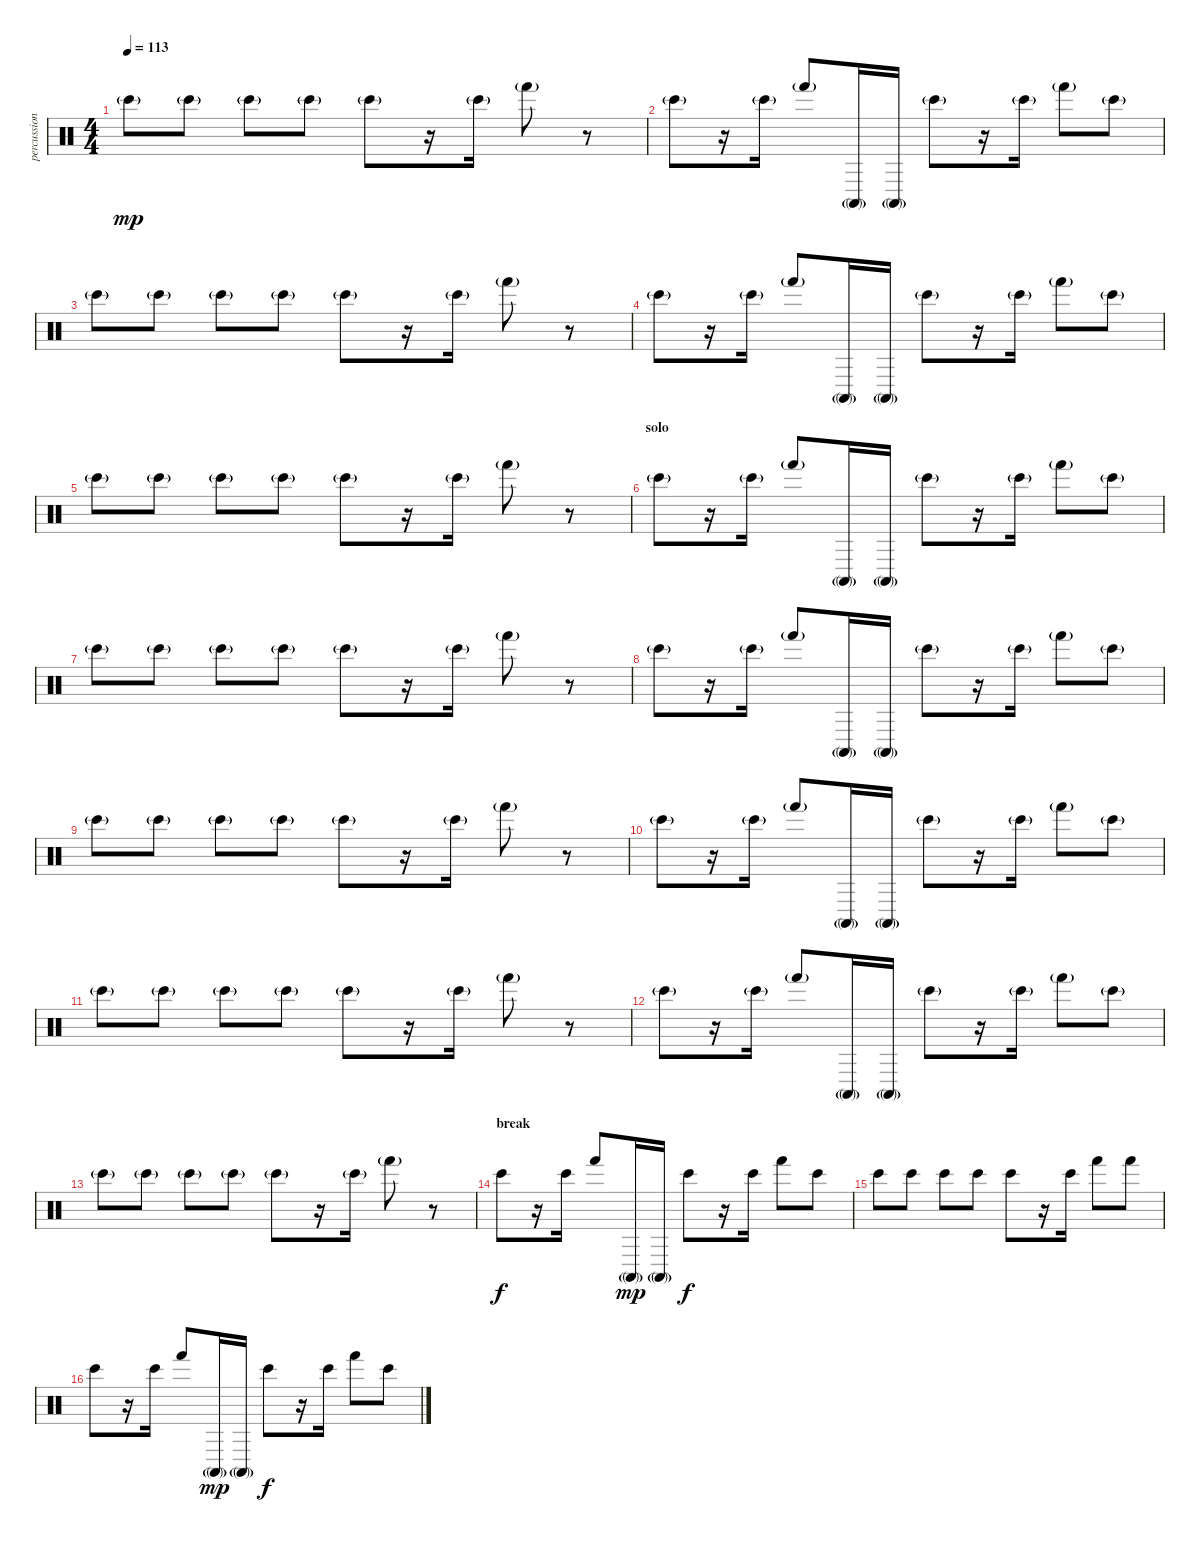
\track ("percussion" "percussion") {instrument percussion}
\staff {score}
\articulation defaults
\ts (4 4)
\tempo 113
\clef neutral
\ks c "Bongo High (hit)"{g}.8{dy mp} "Bongo High (hit)"{g}.8 "Bongo High (hit)"{g}.8 "Bongo High (hit)"{g}.8 "Bongo High (hit)"{g}.8
r.16 "Bongo High (hit)"{g}.16 "Hand (hit)"{g}.8 r.8 |
"Bongo High (hit)"{g}.8 r.16 "Bongo High (hit)"{g}.16 "Hand (hit)"{g}.8 "Conga high (mute)"{g}.16 "Conga high (mute)"{g}.16 "Bongo High (hit)"{g}.8 r.16 "Bongo High (hit)"{g}.16 "Hand (hit)"{g}.8 "Bongo High (hit)"{g}.8 |
"Bongo High (hit)"{g}.8 "Bongo High (hit)"{g}.8 "Bongo High (hit)"{g}.8 "Bongo High (hit)"{g}.8 "Bongo High (hit)"{g}.8 r.16 "Bongo High (hit)"{g}.16 "Hand (hit)"{g}.8 r.8 |
"Bongo High (hit)"{g}.8 r.16 "Bongo High (hit)"{g}.16 "Hand (hit)"{g}.8 "Conga high (mute)"{g}.16 "Conga high (mute)"{g}.16 "Bongo High (hit)"{g}.8 r.16 "Bongo High (hit)"{g}.16 "Hand (hit)"{g}.8 "Bongo High (hit)"{g}.8 |
"Bongo High (hit)"{g}.8 "Bongo High (hit)"{g}.8 "Bongo High (hit)"{g}.8 "Bongo High (hit)"{g}.8 "Bongo High (hit)"{g}.8 r.16 "Bongo High (hit)"{g}.16 "Hand (hit)"{g}.8 r.8 |
\section ("" "solo")
"Bongo High (hit)"{g}.8 r.16 "Bongo High (hit)"{g}.16 "Hand (hit)"{g}.8 "Conga high (mute)"{g}.16 "Conga high (mute)"{g}.16 "Bongo High (hit)"{g}.8 r.16 "Bongo High (hit)"{g}.16 "Hand (hit)"{g}.8 "Bongo High (hit)"{g}.8 |
"Bongo High (hit)"{g}.8 "Bongo High (hit)"{g}.8 "Bongo High (hit)"{g}.8 "Bongo High (hit)"{g}.8 "Bongo High (hit)"{g}.8 r.16 "Bongo High (hit)"{g}.16 "Hand (hit)"{g}.8 r.8 |
"Bongo High (hit)"{g}.8 r.16 "Bongo High (hit)"{g}.16 "Hand (hit)"{g}.8 "Conga high (mute)"{g}.16 "Conga high (mute)"{g}.16 "Bongo High (hit)"{g}.8 r.16 "Bongo High (hit)"{g}.16 "Hand (hit)"{g}.8 "Bongo High (hit)"{g}.8 |
"Bongo High (hit)"{g}.8 "Bongo High (hit)"{g}.8 "Bongo High (hit)"{g}.8 "Bongo High (hit)"{g}.8 "Bongo High (hit)"{g}.8 r.16 "Bongo High (hit)"{g}.16 "Hand (hit)"{g}.8 r.8 |
"Bongo High (hit)"{g}.8 r.16 "Bongo High (hit)"{g}.16 "Hand (hit)"{g}.8 "Conga high (mute)"{g}.16 "Conga high (mute)"{g}.16 "Bongo High (hit)"{g}.8 r.16 "Bongo High (hit)"{g}.16 "Hand (hit)"{g}.8 "Bongo High (hit)"{g}.8 |
"Bongo High (hit)"{g}.8 "Bongo High (hit)"{g}.8 "Bongo High (hit)"{g}.8 "Bongo High (hit)"{g}.8 "Bongo High (hit)"{g}.8 r.16 "Bongo High (hit)"{g}.16 "Hand (hit)"{g}.8 r.8 |
"Bongo High (hit)"{g}.8 r.16 "Bongo High (hit)"{g}.16 "Hand (hit)"{g}.8 "Conga high (mute)"{g}.16 "Conga high (mute)"{g}.16 "Bongo High (hit)"{g}.8 r.16 "Bongo High (hit)"{g}.16 "Hand (hit)"{g}.8 "Bongo High (hit)"{g}.8 |
"Bongo High (hit)"{g}.8 "Bongo High (hit)"{g}.8 "Bongo High (hit)"{g}.8 "Bongo High (hit)"{g}.8 "Bongo High (hit)"{g}.8 r.16 "Bongo High (hit)"{g}.16 "Hand (hit)"{g}.8 r.8 |
\section ("" "break")
"Bongo High (hit)".8{dy f} r.16 "Bongo High (hit)".16 "Hand (hit)".8 "Conga high (mute)"{g}.16{dy mp} "Conga high (mute)"{g}.16 "Bongo High (hit)".8{dy f} r.16 "Bongo High (hit)".16 "Hand (hit)".8 "Bongo High (hit)".8 |
"Bongo High (hit)".8 "Bongo High (hit)".8 "Bongo High (hit)".8 "Bongo High (hit)".8 "Bongo High (hit)".8 r.16 "Bongo High (hit)".16 "Hand (hit)".8 "Hand (hit)".8 |
"Bongo High (hit)".8 r.16 "Bongo High (hit)".16 "Hand (hit)".8 "Conga high (mute)"{g}.16{dy mp} "Conga high (mute)"{g}.16 "Bongo High (hit)".8{dy f} r.16 "Bongo High (hit)".16 "Hand (hit)".8 "Bongo High (hit)".8
